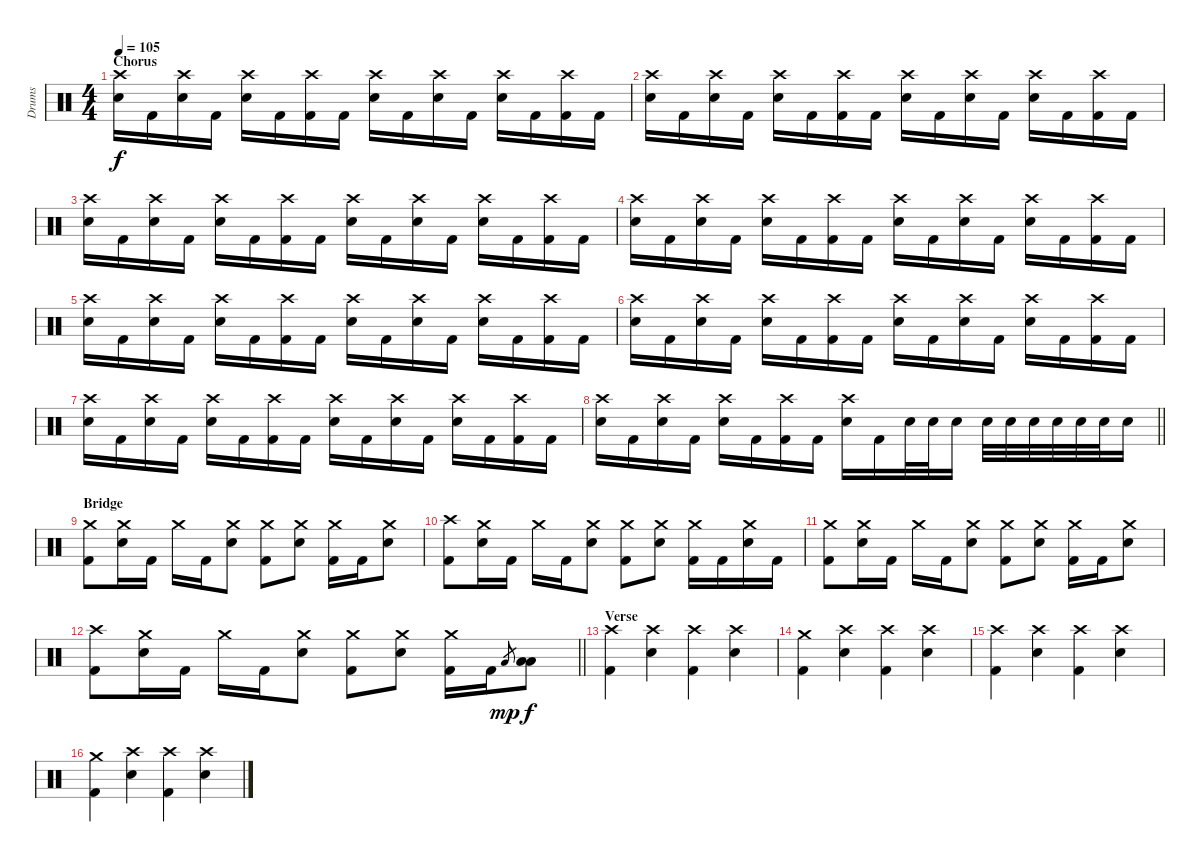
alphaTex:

\track ("Drums" "Drums") {instrument percussion}
\staff {score}
\articulation defaults
\ts (4 4)
\section ("" "Chorus")
\tempo 105
\clef neutral
\ks c
("Crash high (hit)" "Electric Snare (hit)").16{dy f} "Kick (hit) 2".16 ("Crash high (hit)" "Electric Snare (hit)").16 "Kick (hit) 2".16 ("Crash high (hit)" "Electric Snare (hit)").16 "Kick (hit) 2".16 ("Crash high (hit)" "Kick (hit) 2").16 "Kick (hit) 2".16 ("Crash high (hit)" "Electric Snare (hit)").16 "Kick (hit) 2".16 ("Crash high (hit)" "Electric Snare (hit)").16 "Kick (hit) 2".16 ("Crash high (hit)" "Electric Snare (hit)").16 "Kick (hit) 2".16 ("Crash high (hit)" "Kick (hit) 2").16 "Kick (hit) 2".16 |
("Crash high (hit)" "Electric Snare (hit)").16 "Kick (hit) 2".16 ("Crash high (hit)" "Electric Snare (hit)").16 "Kick (hit) 2".16 ("Crash high (hit)" "Electric Snare (hit)").16 "Kick (hit) 2".16 ("Crash high (hit)" "Kick (hit) 2").16 "Kick (hit) 2".16 ("Crash high (hit)" "Electric Snare (hit)").16 "Kick (hit) 2".16 ("Crash high (hit)" "Electric Snare (hit)").16 "Kick (hit) 2".16 ("Crash high (hit)" "Electric Snare (hit)").16 "Kick (hit) 2".16 ("Crash high (hit)" "Kick (hit) 2").16 "Kick (hit) 2".16 |
("Crash high (hit)" "Electric Snare (hit)").16 "Kick (hit) 2".16 ("Crash high (hit)" "Electric Snare (hit)").16 "Kick (hit) 2".16 ("Crash high (hit)" "Electric Snare (hit)").16 "Kick (hit) 2".16 ("Crash high (hit)" "Kick (hit) 2").16 "Kick (hit) 2".16 ("Crash high (hit)" "Electric Snare (hit)").16 "Kick (hit) 2".16 ("Crash high (hit)" "Electric Snare (hit)").16 "Kick (hit) 2".16 ("Crash high (hit)" "Electric Snare (hit)").16 "Kick (hit) 2".16 ("Crash high (hit)" "Kick (hit) 2").16 "Kick (hit) 2".16 |
("Crash high (hit)" "Electric Snare (hit)").16 "Kick (hit) 2".16 ("Crash high (hit)" "Electric Snare (hit)").16 "Kick (hit) 2".16 ("Crash high (hit)" "Electric Snare (hit)").16 "Kick (hit) 2".16 ("Crash high (hit)" "Kick (hit) 2").16 "Kick (hit) 2".16 ("Crash high (hit)" "Electric Snare (hit)").16 "Kick (hit) 2".16 ("Crash high (hit)" "Electric Snare (hit)").16 "Kick (hit) 2".16 ("Crash high (hit)" "Electric Snare (hit)").16 "Kick (hit) 2".16 ("Crash high (hit)" "Kick (hit) 2").16 "Kick (hit) 2".16 |
("Crash high (hit)" "Electric Snare (hit)").16 "Kick (hit) 2".16 ("Crash high (hit)" "Electric Snare (hit)").16 "Kick (hit) 2".16 ("Crash high (hit)" "Electric Snare (hit)").16 "Kick (hit) 2".16 ("Crash high (hit)" "Kick (hit) 2").16 "Kick (hit) 2".16 ("Crash high (hit)" "Electric Snare (hit)").16 "Kick (hit) 2".16 ("Crash high (hit)" "Electric Snare (hit)").16 "Kick (hit) 2".16 ("Crash high (hit)" "Electric Snare (hit)").16 "Kick (hit) 2".16 ("Crash high (hit)" "Kick (hit) 2").16 "Kick (hit) 2".16 |
("Crash high (hit)" "Electric Snare (hit)").16 "Kick (hit) 2".16 ("Crash high (hit)" "Electric Snare (hit)").16 "Kick (hit) 2".16 ("Crash high (hit)" "Electric Snare (hit)").16 "Kick (hit) 2".16 ("Crash high (hit)" "Kick (hit) 2").16 "Kick (hit) 2".16 ("Crash high (hit)" "Electric Snare (hit)").16 "Kick (hit) 2".16 ("Crash high (hit)" "Electric Snare (hit)").16 "Kick (hit) 2".16 ("Crash high (hit)" "Electric Snare (hit)").16 "Kick (hit) 2".16 ("Crash high (hit)" "Kick (hit) 2").16 "Kick (hit) 2".16 |
("Crash high (hit)" "Electric Snare (hit)").16 "Kick (hit) 2".16 ("Crash high (hit)" "Electric Snare (hit)").16 "Kick (hit) 2".16 ("Crash high (hit)" "Electric Snare (hit)").16 "Kick (hit) 2".16 ("Crash high (hit)" "Kick (hit) 2").16 "Kick (hit) 2".16 ("Crash high (hit)" "Electric Snare (hit)").16 "Kick (hit) 2".16 ("Crash high (hit)" "Electric Snare (hit)").16 "Kick (hit) 2".16 ("Crash high (hit)" "Electric Snare (hit)").16 "Kick (hit) 2".16 ("Crash high (hit)" "Kick (hit) 2").16 "Kick (hit) 2".16 |
\barLineRight lightlight
("Crash high (hit)" "Electric Snare (hit)").16 "Kick (hit) 2".16 ("Crash high (hit)" "Electric Snare (hit)").16 "Kick (hit) 2".16 ("Crash high (hit)" "Electric Snare (hit)").16 "Kick (hit) 2".16 ("Crash high (hit)" "Kick (hit) 2").16 "Kick (hit) 2".16 ("Crash high (hit)" "Electric Snare (hit)").16 "Kick (hit) 2".16 "Electric Snare (hit)".32 "Electric Snare (hit)".32 "Electric Snare (hit)".16 "Electric Snare (hit)".32 "Electric Snare (hit)".32 "Electric Snare (hit)".32 "Electric Snare (hit)".32 "Electric Snare (hit)".32 "Electric Snare (hit)".32 "Electric Snare (hit)".16 |
\section ("" "Bridge")
("Crash medium (hit)" "Kick (hit) 2").8 ("Crash medium (hit)" "Electric Snare (hit)").16 "Kick (hit) 2".16 "Crash medium (hit)".16 "Kick (hit) 2".16 ("Crash medium (hit)" "Electric Snare (hit)").8 ("Crash medium (hit)" "Kick (hit) 2").8 ("Crash medium (hit)" "Electric Snare (hit)").8 ("Crash medium (hit)" "Kick (hit) 2").16 "Kick (hit) 2".16 ("Crash medium (hit)" "Electric Snare (hit)").8 |
("Crash high (hit)" "Kick (hit) 2").8 ("Crash medium (hit)" "Electric Snare (hit)").16 "Kick (hit) 2".16 "Crash medium (hit)".16 "Kick (hit) 2".16 ("Crash medium (hit)" "Electric Snare (hit)").8 ("Crash medium (hit)" "Kick (hit) 2").8 ("Crash medium (hit)" "Electric Snare (hit)").8 ("Crash medium (hit)" "Kick (hit) 2").16 "Kick (hit) 2".16 ("Crash medium (hit)" "Electric Snare (hit)").16 "Kick (hit) 2".16 |
("Crash medium (hit)" "Kick (hit) 2").8 ("Crash medium (hit)" "Electric Snare (hit)").16 "Kick (hit) 2".16 "Crash medium (hit)".16 "Kick (hit) 2".16 ("Crash medium (hit)" "Electric Snare (hit)").8 ("Crash medium (hit)" "Kick (hit) 2").8 ("Crash medium (hit)" "Electric Snare (hit)").8 ("Crash medium (hit)" "Kick (hit) 2").16 "Kick (hit) 2".16 ("Crash medium (hit)" "Electric Snare (hit)").8 |
\barLineRight lightlight
("Crash high (hit)" "Kick (hit) 2").8 ("Crash medium (hit)" "Electric Snare (hit)").16 "Kick (hit) 2".16 "Crash medium (hit)".16 "Kick (hit) 2".16 ("Crash medium (hit)" "Electric Snare (hit)").8 ("Crash medium (hit)" "Kick (hit) 2").8 ("Crash medium (hit)" "Electric Snare (hit)").8 ("Crash medium (hit)" "Kick (hit) 2").16 "Kick (hit) 2".16 "Low Floor Tom (hit)".8{gr dy mp} ("Low Tom (hit)" "Low Floor Tom (hit)").8{dy f} |
\section ("" "Verse")
("Crash high (hit)" "Kick (hit) 2").4 ("Crash high (hit)" "Electric Snare (hit)").4 ("Crash high (hit)" "Kick (hit) 2").4 ("Crash high (hit)" "Electric Snare (hit)").4 |
("Crash medium (hit)" "Kick (hit) 2").4 ("Crash high (hit)" "Electric Snare (hit)").4 ("Crash high (hit)" "Kick (hit) 2").4 ("Crash high (hit)" "Electric Snare (hit)").4 |
("Crash high (hit)" "Kick (hit) 2").4 ("Crash high (hit)" "Electric Snare (hit)").4 ("Crash high (hit)" "Kick (hit) 2").4 ("Crash high (hit)" "Electric Snare (hit)").4 |
("Crash medium (hit)" "Kick (hit) 2").4 ("Crash high (hit)" "Electric Snare (hit)").4 ("Crash high (hit)" "Kick (hit) 2").4 ("Crash high (hit)" "Electric Snare (hit)").4
